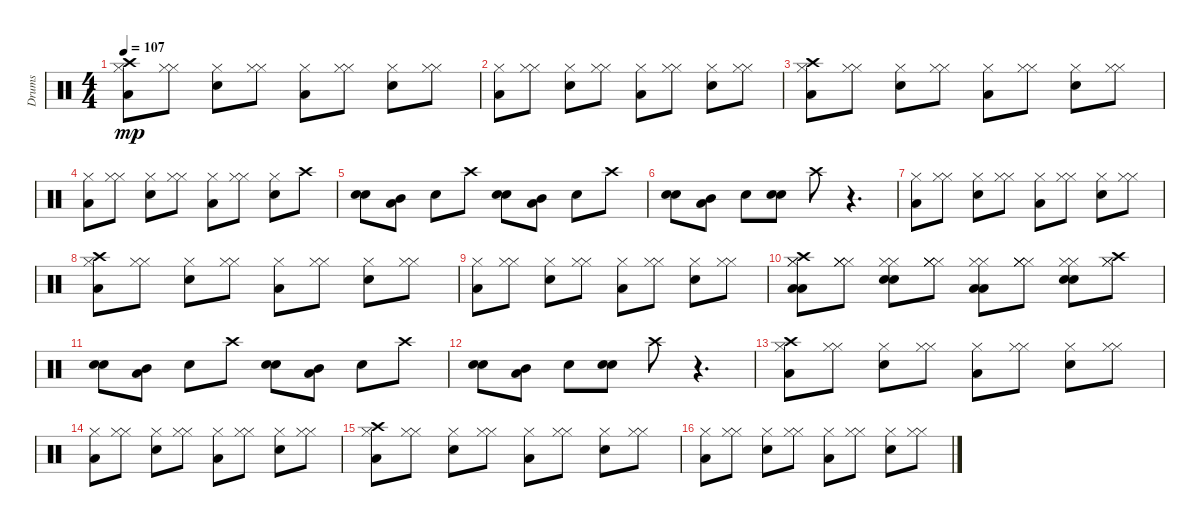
\track ("Drums" "Drums") {instrument percussion}
\staff {score}
\articulation defaults
\ts (4 4)
\tempo 107
\clef neutral
\ks c
("Hi-Hat (closed)" "Crash high (hit)" "Low Tom (hit)").8{dy mp} ("Hi-Hat (closed)" "Hi-Hat (closed)").8 ("Hi-Hat (closed)" "Snare (hit) 2").8 ("Hi-Hat (closed)" "Hi-Hat (closed)").8 ("Hi-Hat (closed)" "Low Tom (hit)").8 ("Hi-Hat (closed)" "Hi-Hat (closed)").8 ("Hi-Hat (closed)" "Snare (hit) 2").8 ("Hi-Hat (closed)" "Hi-Hat (closed)").8 |
("Hi-Hat (closed)" "Low Tom (hit)").8 ("Hi-Hat (closed)" "Hi-Hat (closed)").8 ("Hi-Hat (closed)" "Snare (hit) 2").8 ("Hi-Hat (closed)" "Hi-Hat (closed)").8 ("Hi-Hat (closed)" "Low Tom (hit)").8 ("Hi-Hat (closed)" "Hi-Hat (closed)").8 ("Hi-Hat (closed)" "Snare (hit) 2").8 ("Hi-Hat (closed)" "Hi-Hat (closed)").8 |
("Hi-Hat (closed)" "Crash high (hit)" "Low Tom (hit)").8 ("Hi-Hat (closed)" "Hi-Hat (closed)").8 ("Hi-Hat (closed)" "Snare (hit) 2").8 ("Hi-Hat (closed)" "Hi-Hat (closed)").8 ("Hi-Hat (closed)" "Low Tom (hit)").8 ("Hi-Hat (closed)" "Hi-Hat (closed)").8 ("Hi-Hat (closed)" "Snare (hit) 2").8 ("Hi-Hat (closed)" "Hi-Hat (closed)").8 |
("Hi-Hat (closed)" "Low Tom (hit)").8 ("Hi-Hat (closed)" "Hi-Hat (closed)").8 ("Hi-Hat (closed)" "Snare (hit) 2").8 ("Hi-Hat (closed)" "Hi-Hat (closed)").8 ("Hi-Hat (closed)" "Low Tom (hit)").8 ("Hi-Hat (closed)" "Hi-Hat (closed)").8 ("Hi-Hat (closed)" "Snare (hit) 2").8 "Crash high (hit)".8 |
("Snare (hit) 2" "Snare (hit) 2").8 ("Mid Tom (hit)" "Low Tom (hit)").8 "Snare (hit) 2".8 "Crash high (hit)".8 ("Snare (hit) 2" "Snare (hit) 2").8 ("Mid Tom (hit)" "Low Tom (hit)").8 "Snare (hit) 2".8 "Crash high (hit)".8 |
("Snare (hit) 2" "Snare (hit) 2").8 ("Mid Tom (hit)" "Low Tom (hit)").8 "Snare (hit) 2".8 ("Snare (hit) 2" "Snare (hit) 2").8 "Crash high (hit)".8 r.4{d} |
("Hi-Hat (closed)" "Low Tom (hit)").8 ("Hi-Hat (closed)" "Hi-Hat (closed)").8 ("Hi-Hat (closed)" "Snare (hit) 2").8 ("Hi-Hat (closed)" "Hi-Hat (closed)").8 ("Hi-Hat (closed)" "Low Tom (hit)").8 ("Hi-Hat (closed)" "Hi-Hat (closed)").8 ("Hi-Hat (closed)" "Snare (hit) 2").8 ("Hi-Hat (closed)" "Hi-Hat (closed)").8 |
("Hi-Hat (closed)" "Crash high (hit)" "Low Tom (hit)").8 ("Hi-Hat (closed)" "Hi-Hat (closed)").8 ("Hi-Hat (closed)" "Snare (hit) 2").8 ("Hi-Hat (closed)" "Hi-Hat (closed)").8 ("Hi-Hat (closed)" "Low Tom (hit)").8 ("Hi-Hat (closed)" "Hi-Hat (closed)").8 ("Hi-Hat (closed)" "Snare (hit) 2").8 ("Hi-Hat (closed)" "Hi-Hat (closed)").8 |
("Hi-Hat (closed)" "Low Tom (hit)").8 ("Hi-Hat (closed)" "Hi-Hat (closed)").8 ("Hi-Hat (closed)" "Snare (hit) 2").8 ("Hi-Hat (closed)" "Hi-Hat (closed)").8 ("Hi-Hat (closed)" "Low Tom (hit)").8 ("Hi-Hat (closed)" "Hi-Hat (closed)").8 ("Hi-Hat (closed)" "Snare (hit) 2").8 ("Hi-Hat (closed)" "Hi-Hat (closed)").8 |
("Hi-Hat (closed)" "Low Tom (hit)" "Hi-Hat (closed)" "Crash high (hit)" "Low Tom (hit)").8 ("Hi-Hat (closed)" "Hi-Hat (closed)" "Hi-Hat (closed)" "Hi-Hat (closed)").8 ("Hi-Hat (closed)" "Snare (hit) 2" "Hi-Hat (closed)" "Snare (hit) 2").8 ("Hi-Hat (closed)" "Hi-Hat (closed)" "Hi-Hat (closed)" "Hi-Hat (closed)").8 ("Hi-Hat (closed)" "Low Tom (hit)" "Hi-Hat (closed)" "Low Tom (hit)").8 ("Hi-Hat (closed)" "Hi-Hat (closed)" "Hi-Hat (closed)" "Hi-Hat (closed)").8 ("Hi-Hat (closed)" "Snare (hit) 2" "Hi-Hat (closed)" "Snare (hit) 2").8 ("Crash high (hit)" "Hi-Hat (closed)" "Hi-Hat (closed)").8 |
("Snare (hit) 2" "Snare (hit) 2").8 ("Mid Tom (hit)" "Low Tom (hit)").8 "Snare (hit) 2".8 "Crash high (hit)".8 ("Snare (hit) 2" "Snare (hit) 2").8 ("Mid Tom (hit)" "Low Tom (hit)").8 "Snare (hit) 2".8 "Crash high (hit)".8 |
("Snare (hit) 2" "Snare (hit) 2").8 ("Mid Tom (hit)" "Low Tom (hit)").8 "Snare (hit) 2".8 ("Snare (hit) 2" "Snare (hit) 2").8 "Crash high (hit)".8 r.4{d} |
("Hi-Hat (closed)" "Crash high (hit)" "Low Tom (hit)").8 ("Hi-Hat (closed)" "Hi-Hat (closed)").8 ("Hi-Hat (closed)" "Snare (hit) 2").8 ("Hi-Hat (closed)" "Hi-Hat (closed)").8 ("Hi-Hat (closed)" "Low Tom (hit)").8 ("Hi-Hat (closed)" "Hi-Hat (closed)").8 ("Hi-Hat (closed)" "Snare (hit) 2").8 ("Hi-Hat (closed)" "Hi-Hat (closed)").8 |
("Hi-Hat (closed)" "Low Tom (hit)").8 ("Hi-Hat (closed)" "Hi-Hat (closed)").8 ("Hi-Hat (closed)" "Snare (hit) 2").8 ("Hi-Hat (closed)" "Hi-Hat (closed)").8 ("Hi-Hat (closed)" "Low Tom (hit)").8 ("Hi-Hat (closed)" "Hi-Hat (closed)").8 ("Hi-Hat (closed)" "Snare (hit) 2").8 ("Hi-Hat (closed)" "Hi-Hat (closed)").8 |
("Hi-Hat (closed)" "Crash high (hit)" "Low Tom (hit)").8 ("Hi-Hat (closed)" "Hi-Hat (closed)").8 ("Hi-Hat (closed)" "Snare (hit) 2").8 ("Hi-Hat (closed)" "Hi-Hat (closed)").8 ("Hi-Hat (closed)" "Low Tom (hit)").8 ("Hi-Hat (closed)" "Hi-Hat (closed)").8 ("Hi-Hat (closed)" "Snare (hit) 2").8 ("Hi-Hat (closed)" "Hi-Hat (closed)").8 |
("Hi-Hat (closed)" "Low Tom (hit)").8 ("Hi-Hat (closed)" "Hi-Hat (closed)").8 ("Hi-Hat (closed)" "Snare (hit) 2").8 ("Hi-Hat (closed)" "Hi-Hat (closed)").8 ("Hi-Hat (closed)" "Low Tom (hit)").8 ("Hi-Hat (closed)" "Hi-Hat (closed)").8 ("Hi-Hat (closed)" "Snare (hit) 2").8 ("Hi-Hat (closed)" "Hi-Hat (closed)").8
